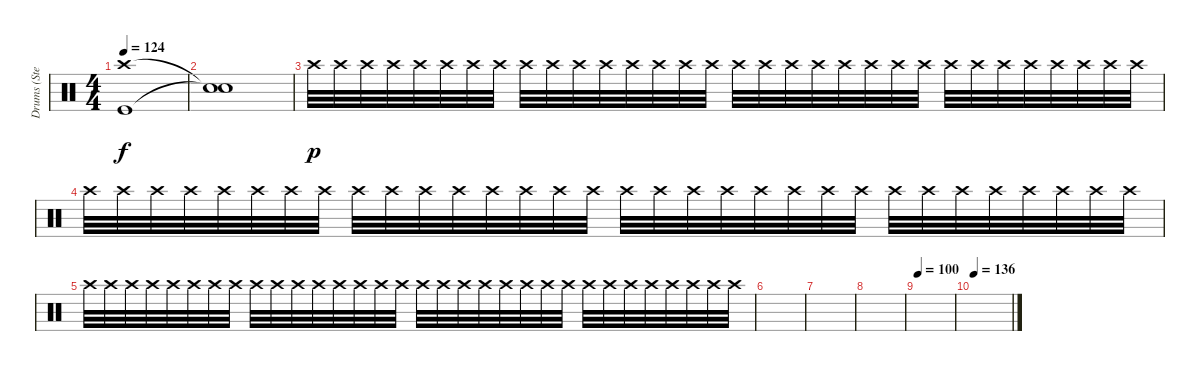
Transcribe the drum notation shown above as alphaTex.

\track ("Drums (Steven)" "Drums (Ste") {instrument percussion}
\staff {score}
\articulation defaults
\ts (4 4)
\tempo 124
\clef neutral
\ks c
("Crash high (hit)" "Kick (hit)").1{dy f} |
("Snare (hit)"{t} "Snare (hit)"{t}).1 |
"Crash high (hit)".32{dy p volume 0} "Crash high (hit)".32 "Crash high (hit)".32 "Crash high (hit)".32{volume 12} "Crash high (hit)".32 "Crash high (hit)".32 "Crash high (hit)".32 "Crash high (hit)".32 "Crash high (hit)".32 "Crash high (hit)".32 "Crash high (hit)".32 "Crash high (hit)".32 "Crash high (hit)".32 "Crash high (hit)".32 "Crash high (hit)".32 "Crash high (hit)".32 "Crash high (hit)".32 "Crash high (hit)".32 "Crash high (hit)".32 "Crash high (hit)".32 "Crash high (hit)".32 "Crash high (hit)".32 "Crash high (hit)".32 "Crash high (hit)".32 "Crash high (hit)".32 "Crash high (hit)".32 "Crash high (hit)".32 "Crash high (hit)".32 "Crash high (hit)".32 "Crash high (hit)".32 "Crash high (hit)".32 "Crash high (hit)".32 |
"Crash high (hit)".32{volume 0} "Crash high (hit)".32 "Crash high (hit)".32 "Crash high (hit)".32 "Crash high (hit)".32 "Crash high (hit)".32 "Crash high (hit)".32 "Crash high (hit)".32 "Crash high (hit)".32 "Crash high (hit)".32 "Crash high (hit)".32 "Crash high (hit)".32 "Crash high (hit)".32 "Crash high (hit)".32 "Crash high (hit)".32 "Crash high (hit)".32 "Crash high (hit)".32 "Crash high (hit)".32 "Crash high (hit)".32 "Crash high (hit)".32 "Crash high (hit)".32 "Crash high (hit)".32 "Crash high (hit)".32 "Crash high (hit)".32 "Crash high (hit)".32 "Crash high (hit)".32 "Crash high (hit)".32 "Crash high (hit)".32 "Crash high (hit)".32 "Crash high (hit)".32 "Crash high (hit)".32 "Crash high (hit)".32 |
"Crash high (hit)".32{volume 0} "Crash high (hit)".32 "Crash high (hit)".32 "Crash high (hit)".32 "Crash high (hit)".32 "Crash high (hit)".32 "Crash high (hit)".32 "Crash high (hit)".32 "Crash high (hit)".32 "Crash high (hit)".32 "Crash high (hit)".32 "Crash high (hit)".32 "Crash high (hit)".32 "Crash high (hit)".32 "Crash high (hit)".32 "Crash high (hit)".32 "Crash high (hit)".32 "Crash high (hit)".32 "Crash high (hit)".32 "Crash high (hit)".32 "Crash high (hit)".32 "Crash high (hit)".32 "Crash high (hit)".32 "Crash high (hit)".32 "Crash high (hit)".32 "Crash high (hit)".32 "Crash high (hit)".32 "Crash high (hit)".32 "Crash high (hit)".32 "Crash high (hit)".32 "Crash high (hit)".32 "Crash high (hit)".32 |
|
|
|
\tempo 100
|
\tempo 136
